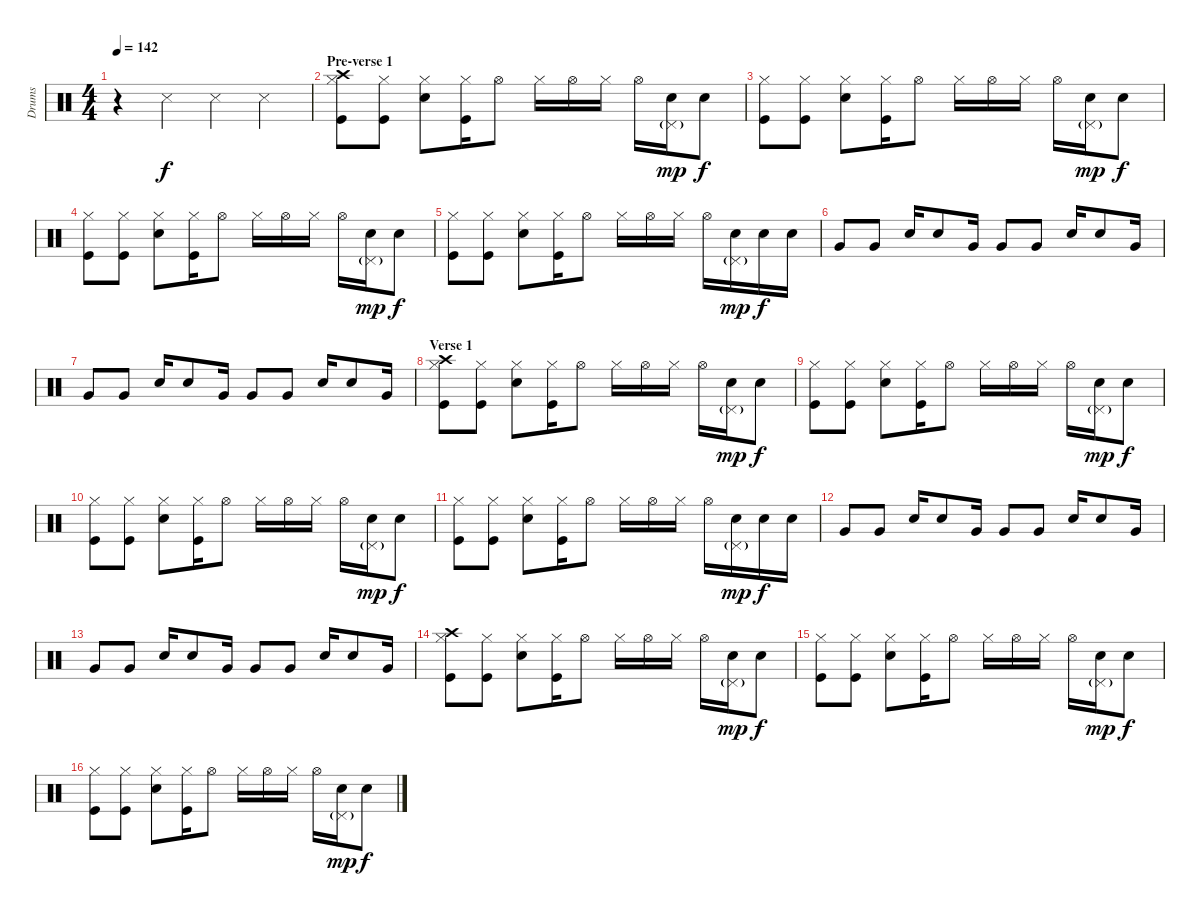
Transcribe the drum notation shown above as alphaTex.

\track ("Drums" "Drums") {instrument percussion}
\staff {score}
\articulation defaults
\ts (4 4)
\tempo 142
\clef neutral
\ks c
r.4{dy f} "Snare (side stick) 3".4 "Snare (side stick) 3".4 "Snare (side stick) 3".4 |
\section ("" "Pre-verse 1")
("Hi-Hat (closed)" "Crash high (hit)" "Kick (hit)").8 ("Hi-Hat (closed)" "Kick (hit)").8 ("Hi-Hat (closed)" "Snare (hit) 2").8 ("Hi-Hat (closed)" "Kick (hit)").16 "Hi-Hat (open)".8 "Hi-Hat (closed)".16 "Hi-Hat (open)".16 "Hi-Hat (closed)".16 "Hi-Hat (open)".16 ("Pedal Hi-Hat (hit)"{g} "Snare (hit) 2").16{dy mp} "Snare (hit) 2".8{dy f} |
("Hi-Hat (closed)" "Kick (hit)").8 ("Hi-Hat (closed)" "Kick (hit)").8 ("Hi-Hat (closed)" "Snare (hit) 2").8 ("Hi-Hat (closed)" "Kick (hit)").16 "Hi-Hat (open)".8 "Hi-Hat (closed)".16 "Hi-Hat (open)".16 "Hi-Hat (closed)".16 "Hi-Hat (open)".16 ("Pedal Hi-Hat (hit)"{g} "Snare (hit) 2").16{dy mp} "Snare (hit) 2".8{dy f} |
("Hi-Hat (closed)" "Kick (hit)").8 ("Hi-Hat (closed)" "Kick (hit)").8 ("Hi-Hat (closed)" "Snare (hit) 2").8 ("Hi-Hat (closed)" "Kick (hit)").16 "Hi-Hat (open)".8 "Hi-Hat (closed)".16 "Hi-Hat (open)".16 "Hi-Hat (closed)".16 "Hi-Hat (open)".16 ("Pedal Hi-Hat (hit)"{g} "Snare (hit) 2").16{dy mp} "Snare (hit) 2".8{dy f} |
("Hi-Hat (closed)" "Kick (hit)").8 ("Hi-Hat (closed)" "Kick (hit)").8 ("Hi-Hat (closed)" "Snare (hit) 2").8 ("Hi-Hat (closed)" "Kick (hit)").16 "Hi-Hat (open)".8 "Hi-Hat (closed)".16 "Hi-Hat (open)".16 "Hi-Hat (closed)".16 "Hi-Hat (open)".16 ("Pedal Hi-Hat (hit)"{g} "Snare (hit) 2").16{dy mp} "Snare (hit) 2".16{dy f} "Snare (hit) 2".16 |
"Very Low Tom (hit)".8 "Very Low Tom (hit)".8 "Snare (hit) 2".16 "Snare (hit) 2".8 "Very Low Tom (hit)".16 "Very Low Tom (hit)".8 "Very Low Tom (hit)".8 "Snare (hit) 2".16 "Snare (hit) 2".8 "Very Low Tom (hit)".16 |
"Very Low Tom (hit)".8 "Very Low Tom (hit)".8 "Snare (hit) 2".16 "Snare (hit) 2".8 "Very Low Tom (hit)".16 "Very Low Tom (hit)".8 "Very Low Tom (hit)".8 "Snare (hit) 2".16 "Snare (hit) 2".8 "Very Low Tom (hit)".16 |
\section ("" "Verse 1")
("Hi-Hat (closed)" "Crash high (hit)" "Kick (hit)").8 ("Hi-Hat (closed)" "Kick (hit)").8 ("Hi-Hat (closed)" "Snare (hit) 2").8 ("Hi-Hat (closed)" "Kick (hit)").16 "Hi-Hat (open)".8 "Hi-Hat (closed)".16 "Hi-Hat (open)".16 "Hi-Hat (closed)".16 "Hi-Hat (open)".16 ("Pedal Hi-Hat (hit)"{g} "Snare (hit) 2").16{dy mp} "Snare (hit) 2".8{dy f} |
("Hi-Hat (closed)" "Kick (hit)").8 ("Hi-Hat (closed)" "Kick (hit)").8 ("Hi-Hat (closed)" "Snare (hit) 2").8 ("Hi-Hat (closed)" "Kick (hit)").16 "Hi-Hat (open)".8 "Hi-Hat (closed)".16 "Hi-Hat (open)".16 "Hi-Hat (closed)".16 "Hi-Hat (open)".16 ("Pedal Hi-Hat (hit)"{g} "Snare (hit) 2").16{dy mp} "Snare (hit) 2".8{dy f} |
("Hi-Hat (closed)" "Kick (hit)").8 ("Hi-Hat (closed)" "Kick (hit)").8 ("Hi-Hat (closed)" "Snare (hit) 2").8 ("Hi-Hat (closed)" "Kick (hit)").16 "Hi-Hat (open)".8 "Hi-Hat (closed)".16 "Hi-Hat (open)".16 "Hi-Hat (closed)".16 "Hi-Hat (open)".16 ("Pedal Hi-Hat (hit)"{g} "Snare (hit) 2").16{dy mp} "Snare (hit) 2".8{dy f} |
("Hi-Hat (closed)" "Kick (hit)").8 ("Hi-Hat (closed)" "Kick (hit)").8 ("Hi-Hat (closed)" "Snare (hit) 2").8 ("Hi-Hat (closed)" "Kick (hit)").16 "Hi-Hat (open)".8 "Hi-Hat (closed)".16 "Hi-Hat (open)".16 "Hi-Hat (closed)".16 "Hi-Hat (open)".16 ("Pedal Hi-Hat (hit)"{g} "Snare (hit) 2").16{dy mp} "Snare (hit) 2".16{dy f} "Snare (hit) 2".16 |
"Very Low Tom (hit)".8 "Very Low Tom (hit)".8 "Snare (hit) 2".16 "Snare (hit) 2".8 "Very Low Tom (hit)".16 "Very Low Tom (hit)".8 "Very Low Tom (hit)".8 "Snare (hit) 2".16 "Snare (hit) 2".8 "Very Low Tom (hit)".16 |
"Very Low Tom (hit)".8 "Very Low Tom (hit)".8 "Snare (hit) 2".16 "Snare (hit) 2".8 "Very Low Tom (hit)".16 "Very Low Tom (hit)".8 "Very Low Tom (hit)".8 "Snare (hit) 2".16 "Snare (hit) 2".8 "Very Low Tom (hit)".16 |
("Hi-Hat (closed)" "Crash high (hit)" "Kick (hit)").8 ("Hi-Hat (closed)" "Kick (hit)").8 ("Hi-Hat (closed)" "Snare (hit) 2").8 ("Hi-Hat (closed)" "Kick (hit)").16 "Hi-Hat (open)".8 "Hi-Hat (closed)".16 "Hi-Hat (open)".16 "Hi-Hat (closed)".16 "Hi-Hat (open)".16 ("Pedal Hi-Hat (hit)"{g} "Snare (hit) 2").16{dy mp} "Snare (hit) 2".8{dy f} |
("Hi-Hat (closed)" "Kick (hit)").8 ("Hi-Hat (closed)" "Kick (hit)").8 ("Hi-Hat (closed)" "Snare (hit) 2").8 ("Hi-Hat (closed)" "Kick (hit)").16 "Hi-Hat (open)".8 "Hi-Hat (closed)".16 "Hi-Hat (open)".16 "Hi-Hat (closed)".16 "Hi-Hat (open)".16 ("Pedal Hi-Hat (hit)"{g} "Snare (hit) 2").16{dy mp} "Snare (hit) 2".8{dy f} |
("Hi-Hat (closed)" "Kick (hit)").8 ("Hi-Hat (closed)" "Kick (hit)").8 ("Hi-Hat (closed)" "Snare (hit) 2").8 ("Hi-Hat (closed)" "Kick (hit)").16 "Hi-Hat (open)".8 "Hi-Hat (closed)".16 "Hi-Hat (open)".16 "Hi-Hat (closed)".16 "Hi-Hat (open)".16 ("Pedal Hi-Hat (hit)"{g} "Snare (hit) 2").16{dy mp} "Snare (hit) 2".8{dy f}
